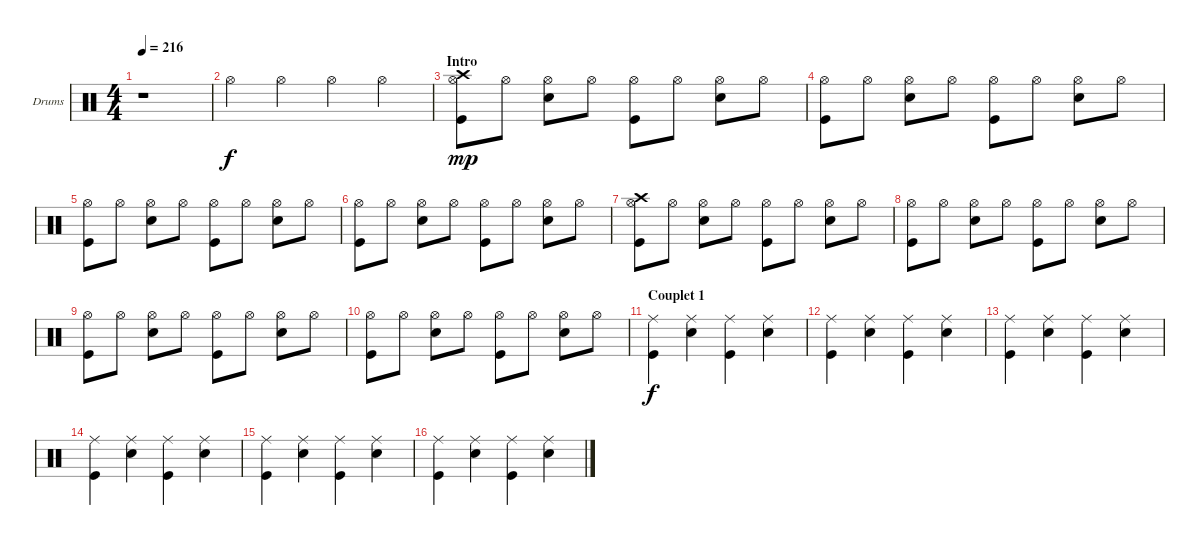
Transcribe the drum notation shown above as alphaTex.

\bracketExtendMode groupsimilarinstruments
\firstSystemTrackNameOrientation horizontal
\otherSystemsTrackNameOrientation horizontal
\chordDiagramsInScore
\track ("Drumkit" "Drums") {instrument percussion}
\staff {score}
\articulation defaults
\ts (4 4)
\tempo 216
\clef neutral
\ks c
r.1{dy f} |
"Hi-Hat (open)".4 "Hi-Hat (open)".4 "Hi-Hat (open)".4 "Hi-Hat (open)".4 |
\section ("" "Intro")
("Hi-Hat (open)" "Crash high (hit)" "Kick (hit)").8{dy mp} "Hi-Hat (open)".8 ("Hi-Hat (open)" "Snare (hit) 2").8 "Hi-Hat (open)".8 ("Hi-Hat (open)" "Kick (hit)").8 "Hi-Hat (open)".8 ("Hi-Hat (open)" "Snare (hit) 2").8 "Hi-Hat (open)".8 |
("Hi-Hat (open)" "Kick (hit)").8 "Hi-Hat (open)".8 ("Hi-Hat (open)" "Snare (hit) 2").8 "Hi-Hat (open)".8 ("Hi-Hat (open)" "Kick (hit)").8 "Hi-Hat (open)".8 ("Hi-Hat (open)" "Snare (hit) 2").8 "Hi-Hat (open)".8 |
("Hi-Hat (open)" "Kick (hit)").8 "Hi-Hat (open)".8 ("Hi-Hat (open)" "Snare (hit) 2").8 "Hi-Hat (open)".8 ("Hi-Hat (open)" "Kick (hit)").8 "Hi-Hat (open)".8 ("Hi-Hat (open)" "Snare (hit) 2").8 "Hi-Hat (open)".8 |
("Hi-Hat (open)" "Kick (hit)").8 "Hi-Hat (open)".8 ("Hi-Hat (open)" "Snare (hit) 2").8 "Hi-Hat (open)".8 ("Hi-Hat (open)" "Kick (hit)").8 "Hi-Hat (open)".8 ("Hi-Hat (open)" "Snare (hit) 2").8 "Hi-Hat (open)".8 |
("Hi-Hat (open)" "Crash high (hit)" "Kick (hit)").8 "Hi-Hat (open)".8 ("Hi-Hat (open)" "Snare (hit) 2").8 "Hi-Hat (open)".8 ("Hi-Hat (open)" "Kick (hit)").8 "Hi-Hat (open)".8 ("Hi-Hat (open)" "Snare (hit) 2").8 "Hi-Hat (open)".8 |
("Hi-Hat (open)" "Kick (hit)").8 "Hi-Hat (open)".8 ("Hi-Hat (open)" "Snare (hit) 2").8 "Hi-Hat (open)".8 ("Hi-Hat (open)" "Kick (hit)").8 "Hi-Hat (open)".8 ("Hi-Hat (open)" "Snare (hit) 2").8 "Hi-Hat (open)".8 |
("Hi-Hat (open)" "Kick (hit)").8 "Hi-Hat (open)".8 ("Hi-Hat (open)" "Snare (hit) 2").8 "Hi-Hat (open)".8 ("Hi-Hat (open)" "Kick (hit)").8 "Hi-Hat (open)".8 ("Hi-Hat (open)" "Snare (hit) 2").8 "Hi-Hat (open)".8 |
("Hi-Hat (open)" "Kick (hit)").8 "Hi-Hat (open)".8 ("Hi-Hat (open)" "Snare (hit) 2").8 "Hi-Hat (open)".8 ("Hi-Hat (open)" "Kick (hit)").8 "Hi-Hat (open)".8 ("Hi-Hat (open)" "Snare (hit) 2").8 "Hi-Hat (open)".8 |
\section ("" "Couplet 1")
("Ride (middle)" "Kick (hit)").4{dy f} ("Ride (middle)" "Snare (hit) 2").4 ("Ride (middle)" "Kick (hit)").4 ("Ride (middle)" "Snare (hit) 2").4 |
("Ride (middle)" "Kick (hit)").4 ("Ride (middle)" "Snare (hit) 2").4 ("Ride (middle)" "Kick (hit)").4 ("Ride (middle)" "Snare (hit) 2").4 |
("Ride (middle)" "Kick (hit)").4 ("Ride (middle)" "Snare (hit) 2").4 ("Ride (middle)" "Kick (hit)").4 ("Ride (middle)" "Snare (hit) 2").4 |
("Ride (middle)" "Kick (hit)").4 ("Ride (middle)" "Snare (hit) 2").4 ("Ride (middle)" "Kick (hit)").4 ("Ride (middle)" "Snare (hit) 2").4 |
("Ride (middle)" "Kick (hit)").4 ("Ride (middle)" "Snare (hit) 2").4 ("Ride (middle)" "Kick (hit)").4 ("Ride (middle)" "Snare (hit) 2").4 |
("Ride (middle)" "Kick (hit)").4 ("Ride (middle)" "Snare (hit) 2").4 ("Ride (middle)" "Kick (hit)").4 ("Ride (middle)" "Snare (hit) 2").4
